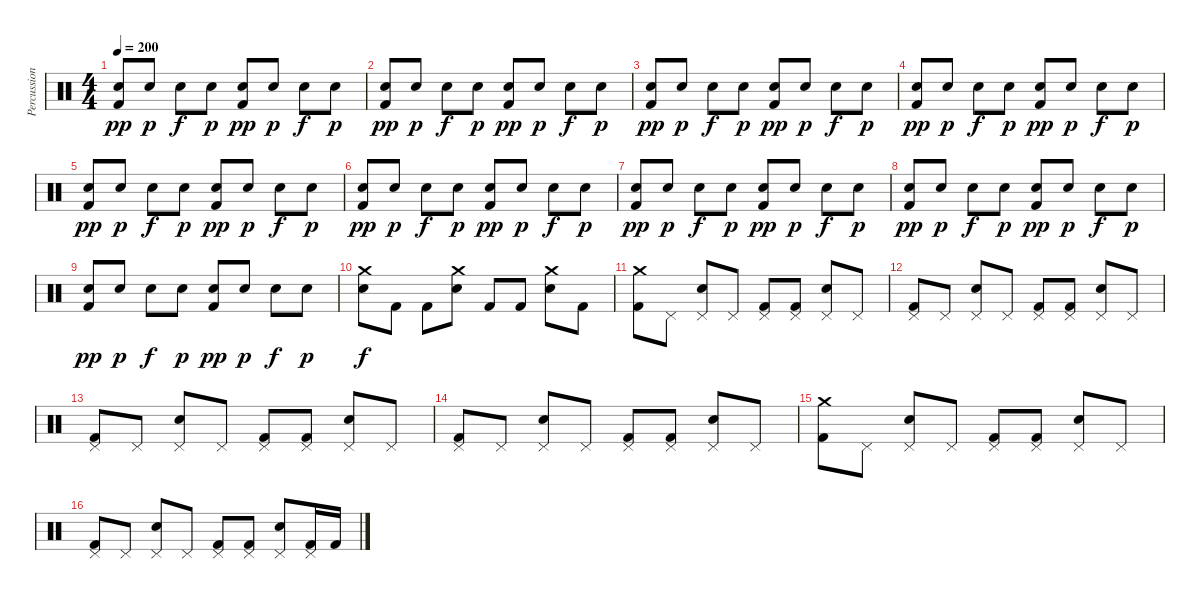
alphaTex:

\track ("Percussion" "Percussion") {instrument percussion}
\staff {score}
\articulation defaults
\ts (4 4)
\tempo 200
\clef neutral
\ks c
("Snare (hit) 2" "Kick (hit) 2").8{dy pp} "Snare (hit) 2".8{dy p} "Snare (hit) 2".8{dy f} "Snare (hit) 2".8{dy p} ("Snare (hit) 2" "Kick (hit) 2").8{dy pp} "Snare (hit) 2".8{dy p} "Snare (hit) 2".8{dy f} "Snare (hit) 2".8{dy p} |
("Snare (hit) 2" "Kick (hit) 2").8{dy pp} "Snare (hit) 2".8{dy p} "Snare (hit) 2".8{dy f} "Snare (hit) 2".8{dy p} ("Snare (hit) 2" "Kick (hit) 2").8{dy pp} "Snare (hit) 2".8{dy p} "Snare (hit) 2".8{dy f} "Snare (hit) 2".8{dy p} |
("Snare (hit) 2" "Kick (hit) 2").8{dy pp} "Snare (hit) 2".8{dy p} "Snare (hit) 2".8{dy f} "Snare (hit) 2".8{dy p} ("Snare (hit) 2" "Kick (hit) 2").8{dy pp} "Snare (hit) 2".8{dy p} "Snare (hit) 2".8{dy f} "Snare (hit) 2".8{dy p} |
("Snare (hit) 2" "Kick (hit) 2").8{dy pp} "Snare (hit) 2".8{dy p} "Snare (hit) 2".8{dy f} "Snare (hit) 2".8{dy p} ("Snare (hit) 2" "Kick (hit) 2").8{dy pp} "Snare (hit) 2".8{dy p} "Snare (hit) 2".8{dy f} "Snare (hit) 2".8{dy p} |
("Snare (hit) 2" "Kick (hit) 2").8{dy pp} "Snare (hit) 2".8{dy p} "Snare (hit) 2".8{dy f} "Snare (hit) 2".8{dy p} ("Snare (hit) 2" "Kick (hit) 2").8{dy pp} "Snare (hit) 2".8{dy p} "Snare (hit) 2".8{dy f} "Snare (hit) 2".8{dy p} |
("Snare (hit) 2" "Kick (hit) 2").8{dy pp} "Snare (hit) 2".8{dy p} "Snare (hit) 2".8{dy f} "Snare (hit) 2".8{dy p} ("Snare (hit) 2" "Kick (hit) 2").8{dy pp} "Snare (hit) 2".8{dy p} "Snare (hit) 2".8{dy f} "Snare (hit) 2".8{dy p} |
("Snare (hit) 2" "Kick (hit) 2").8{dy pp} "Snare (hit) 2".8{dy p} "Snare (hit) 2".8{dy f} "Snare (hit) 2".8{dy p} ("Snare (hit) 2" "Kick (hit) 2").8{dy pp} "Snare (hit) 2".8{dy p} "Snare (hit) 2".8{dy f} "Snare (hit) 2".8{dy p} |
("Snare (hit) 2" "Kick (hit) 2").8{dy pp} "Snare (hit) 2".8{dy p} "Snare (hit) 2".8{dy f} "Snare (hit) 2".8{dy p} ("Snare (hit) 2" "Kick (hit) 2").8{dy pp} "Snare (hit) 2".8{dy p} "Snare (hit) 2".8{dy f} "Snare (hit) 2".8{dy p} |
("Snare (hit) 2" "Kick (hit) 2").8{dy pp} "Snare (hit) 2".8{dy p} "Snare (hit) 2".8{dy f} "Snare (hit) 2".8{dy p} ("Snare (hit) 2" "Kick (hit) 2").8{dy pp} "Snare (hit) 2".8{dy p} "Snare (hit) 2".8{dy f} "Snare (hit) 2".8{dy p} |
("Crash medium (hit)" "Snare (hit) 2").8{dy f} "Kick (hit) 2".8 "Kick (hit) 2".8 ("Crash medium (hit)" "Snare (hit) 2").8 "Kick (hit) 2".8 "Kick (hit) 2".8 ("Crash medium (hit)" "Snare (hit) 2").8 "Kick (hit) 2".8 |
("Crash medium (hit)" "Kick (hit) 2").8 "Pedal Hi-Hat (hit)".8 ("Pedal Hi-Hat (hit)" "Snare (hit) 2").8 "Pedal Hi-Hat (hit)".8 ("Pedal Hi-Hat (hit)" "Kick (hit) 2").8 ("Pedal Hi-Hat (hit)" "Kick (hit) 2").8 ("Pedal Hi-Hat (hit)" "Snare (hit) 2").8 "Pedal Hi-Hat (hit)".8 |
("Pedal Hi-Hat (hit)" "Kick (hit) 2").8 "Pedal Hi-Hat (hit)".8 ("Pedal Hi-Hat (hit)" "Snare (hit) 2").8 "Pedal Hi-Hat (hit)".8 ("Pedal Hi-Hat (hit)" "Kick (hit) 2").8 ("Pedal Hi-Hat (hit)" "Kick (hit) 2").8 ("Pedal Hi-Hat (hit)" "Snare (hit) 2").8 "Pedal Hi-Hat (hit)".8 |
("Pedal Hi-Hat (hit)" "Kick (hit) 2").8 "Pedal Hi-Hat (hit)".8 ("Pedal Hi-Hat (hit)" "Snare (hit) 2").8 "Pedal Hi-Hat (hit)".8 ("Pedal Hi-Hat (hit)" "Kick (hit) 2").8 ("Pedal Hi-Hat (hit)" "Kick (hit) 2").8 ("Pedal Hi-Hat (hit)" "Snare (hit) 2").8 "Pedal Hi-Hat (hit)".8 |
("Pedal Hi-Hat (hit)" "Kick (hit) 2").8 "Pedal Hi-Hat (hit)".8 ("Pedal Hi-Hat (hit)" "Snare (hit) 2").8 "Pedal Hi-Hat (hit)".8 ("Pedal Hi-Hat (hit)" "Kick (hit) 2").8 ("Pedal Hi-Hat (hit)" "Kick (hit) 2").8 ("Pedal Hi-Hat (hit)" "Snare (hit) 2").8 "Pedal Hi-Hat (hit)".8 |
("Crash medium (hit)" "Kick (hit) 2").8 "Pedal Hi-Hat (hit)".8 ("Pedal Hi-Hat (hit)" "Snare (hit) 2").8 "Pedal Hi-Hat (hit)".8 ("Pedal Hi-Hat (hit)" "Kick (hit) 2").8 ("Pedal Hi-Hat (hit)" "Kick (hit) 2").8 ("Pedal Hi-Hat (hit)" "Snare (hit) 2").8 "Pedal Hi-Hat (hit)".8 |
("Pedal Hi-Hat (hit)" "Kick (hit) 2").8 "Pedal Hi-Hat (hit)".8 ("Pedal Hi-Hat (hit)" "Snare (hit) 2").8 "Pedal Hi-Hat (hit)".8 ("Pedal Hi-Hat (hit)" "Kick (hit) 2").8 ("Pedal Hi-Hat (hit)" "Kick (hit) 2").8 ("Pedal Hi-Hat (hit)" "Snare (hit) 2").8 ("Pedal Hi-Hat (hit)" "Kick (hit) 2").16 "Kick (hit) 2".16
